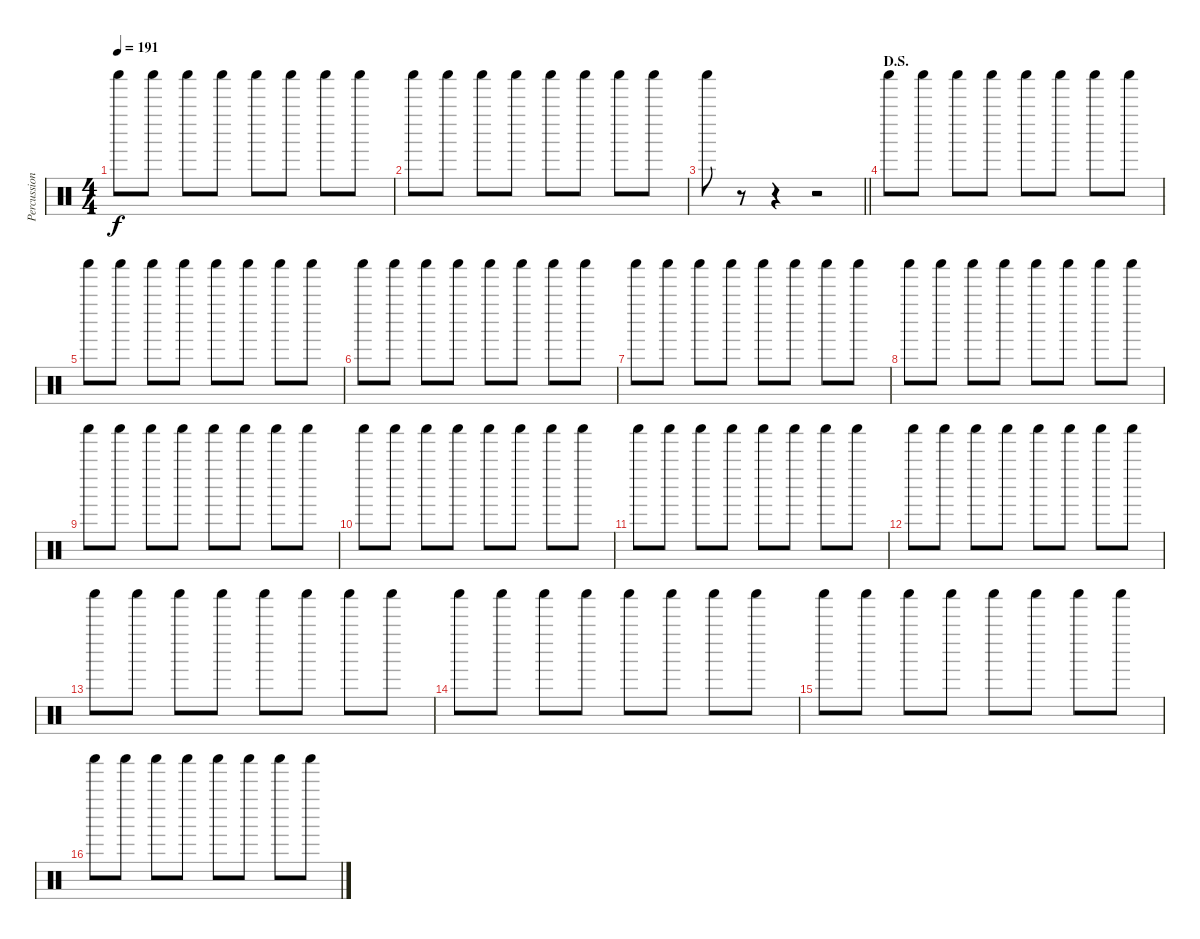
\track ("Percussion" "Percussion") {instrument percussion}
\staff {score}
\articulation defaults
\ts (4 4)
\tempo 191
\clef neutral
\ks c "Shaker (hit)".8{dy f} "Shaker (hit)".8 "Shaker (hit)".8 "Shaker (hit)".8 "Shaker (hit)".8 "Shaker (hit)".8 "Shaker (hit)".8 "Shaker (hit)".8
|
"Shaker (hit)".8 "Shaker (hit)".8 "Shaker (hit)".8 "Shaker (hit)".8 "Shaker (hit)".8 "Shaker (hit)".8 "Shaker (hit)".8 "Shaker (hit)".8 |
\barLineRight lightlight "Shaker (hit)".8
r.8 r.4 r.2 |
\section ("" "D.S.")
"Shaker (hit)".8 "Shaker (hit)".8 "Shaker (hit)".8 "Shaker (hit)".8 "Shaker (hit)".8 "Shaker (hit)".8 "Shaker (hit)".8 "Shaker (hit)".8 |
"Shaker (hit)".8 "Shaker (hit)".8 "Shaker (hit)".8 "Shaker (hit)".8 "Shaker (hit)".8 "Shaker (hit)".8 "Shaker (hit)".8 "Shaker (hit)".8 |
"Shaker (hit)".8 "Shaker (hit)".8 "Shaker (hit)".8 "Shaker (hit)".8 "Shaker (hit)".8 "Shaker (hit)".8 "Shaker (hit)".8 "Shaker (hit)".8 |
"Shaker (hit)".8 "Shaker (hit)".8 "Shaker (hit)".8 "Shaker (hit)".8 "Shaker (hit)".8 "Shaker (hit)".8 "Shaker (hit)".8 "Shaker (hit)".8 |
"Shaker (hit)".8 "Shaker (hit)".8 "Shaker (hit)".8 "Shaker (hit)".8 "Shaker (hit)".8 "Shaker (hit)".8 "Shaker (hit)".8 "Shaker (hit)".8 |
"Shaker (hit)".8 "Shaker (hit)".8 "Shaker (hit)".8 "Shaker (hit)".8 "Shaker (hit)".8 "Shaker (hit)".8 "Shaker (hit)".8 "Shaker (hit)".8 |
"Shaker (hit)".8 "Shaker (hit)".8 "Shaker (hit)".8 "Shaker (hit)".8 "Shaker (hit)".8 "Shaker (hit)".8 "Shaker (hit)".8 "Shaker (hit)".8 |
"Shaker (hit)".8 "Shaker (hit)".8 "Shaker (hit)".8 "Shaker (hit)".8 "Shaker (hit)".8 "Shaker (hit)".8 "Shaker (hit)".8 "Shaker (hit)".8 |
"Shaker (hit)".8 "Shaker (hit)".8 "Shaker (hit)".8 "Shaker (hit)".8 "Shaker (hit)".8 "Shaker (hit)".8 "Shaker (hit)".8 "Shaker (hit)".8 |
"Shaker (hit)".8 "Shaker (hit)".8 "Shaker (hit)".8 "Shaker (hit)".8 "Shaker (hit)".8 "Shaker (hit)".8 "Shaker (hit)".8 "Shaker (hit)".8 |
"Shaker (hit)".8 "Shaker (hit)".8 "Shaker (hit)".8 "Shaker (hit)".8 "Shaker (hit)".8 "Shaker (hit)".8 "Shaker (hit)".8 "Shaker (hit)".8 |
"Shaker (hit)".8 "Shaker (hit)".8 "Shaker (hit)".8 "Shaker (hit)".8 "Shaker (hit)".8 "Shaker (hit)".8 "Shaker (hit)".8 "Shaker (hit)".8 |
"Shaker (hit)".8 "Shaker (hit)".8 "Shaker (hit)".8 "Shaker (hit)".8 "Shaker (hit)".8 "Shaker (hit)".8 "Shaker (hit)".8 "Shaker (hit)".8
